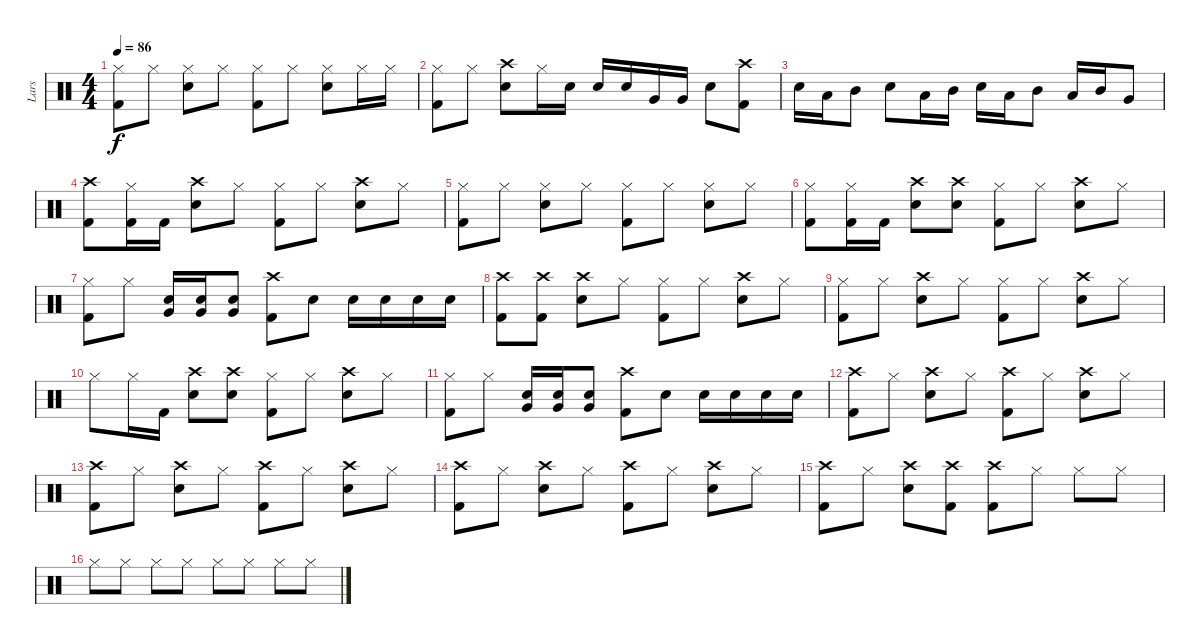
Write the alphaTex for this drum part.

\track ("Lars" "Lars") {instrument percussion}
\staff {score}
\articulation defaults
\ts (4 4)
\tempo 86
\clef neutral
\ks c
("Hi-Hat (closed)" "Kick (hit) 2").8{dy f} "Hi-Hat (closed)".8 ("Hi-Hat (closed)" "Electric Snare (hit)").8 "Hi-Hat (closed)".8 ("Hi-Hat (closed)" "Kick (hit) 2").8 "Hi-Hat (closed)".8 ("Hi-Hat (closed)" "Electric Snare (hit)").8 "Hi-Hat (closed)".16 "Hi-Hat (closed)".16 |
("Hi-Hat (closed)" "Kick (hit) 2").8 "Hi-Hat (closed)".8 ("Crash high (hit)" "Electric Snare (hit)").8 "Hi-Hat (closed)".16 "Electric Snare (hit)".16 "Electric Snare (hit)".16 "Electric Snare (hit)".16 "Very Low Tom (hit)".16 "Very Low Tom (hit)".16 "Electric Snare (hit)".8 ("Crash high (hit)" "Kick (hit) 2").8 |
"Electric Snare (hit)".16 "Low Tom (hit)".16 "Mid Tom (hit)".8 "Electric Snare (hit)".8 "Low Tom (hit)".16 "Mid Tom (hit)".16 "Electric Snare (hit)".16 "Low Tom (hit)".16 "Mid Tom (hit)".8 "Low Tom (hit)".16 "Mid Tom (hit)".16 "Very Low Tom (hit)".8 |
("Crash high (hit)" "Kick (hit) 2").8 ("Hi-Hat (closed)" "Kick (hit) 2").16 "Kick (hit) 2".16 ("Crash high (hit)" "Electric Snare (hit)").8 "Hi-Hat (closed)".8 ("Hi-Hat (closed)" "Kick (hit) 2").8 "Hi-Hat (closed)".8 ("Crash high (hit)" "Electric Snare (hit)").8 "Hi-Hat (closed)".8 |
("Hi-Hat (closed)" "Kick (hit) 2").8 "Hi-Hat (closed)".8 ("Hi-Hat (closed)" "Electric Snare (hit)").8 "Hi-Hat (closed)".8 ("Hi-Hat (closed)" "Kick (hit) 2").8 "Hi-Hat (closed)".8 ("Hi-Hat (closed)" "Electric Snare (hit)").8 "Hi-Hat (closed)".8 |
("Hi-Hat (closed)" "Kick (hit) 2").8 ("Hi-Hat (closed)" "Kick (hit) 2").16 "Kick (hit) 2".16 ("Crash high (hit)" "Electric Snare (hit)").8 ("Crash high (hit)" "Electric Snare (hit)").8 ("Hi-Hat (closed)" "Kick (hit) 2").8 "Hi-Hat (closed)".8 ("Crash high (hit)" "Electric Snare (hit)").8 "Hi-Hat (closed)".8 |
("Hi-Hat (closed)" "Kick (hit) 2").8 "Hi-Hat (closed)".8 ("Very Low Tom (hit)" "Electric Snare (hit)").16 ("Very Low Tom (hit)" "Electric Snare (hit)").16 ("Very Low Tom (hit)" "Electric Snare (hit)").8 ("Crash high (hit)" "Kick (hit) 2").8 "Electric Snare (hit)".8 "Electric Snare (hit)".16 "Electric Snare (hit)".16 "Electric Snare (hit)".16 "Electric Snare (hit)".16 |
("Crash high (hit)" "Kick (hit) 2").8 ("Crash high (hit)" "Kick (hit) 2").8 ("Crash high (hit)" "Electric Snare (hit)").8 "Hi-Hat (closed)".8 ("Hi-Hat (closed)" "Kick (hit) 2").8 "Hi-Hat (closed)".8 ("Crash high (hit)" "Electric Snare (hit)").8 "Hi-Hat (closed)".8 |
("Hi-Hat (closed)" "Kick (hit) 2").8 "Hi-Hat (closed)".8 ("Crash high (hit)" "Electric Snare (hit)").8 "Hi-Hat (closed)".8 ("Hi-Hat (closed)" "Kick (hit) 2").8 "Hi-Hat (closed)".8 ("Crash high (hit)" "Electric Snare (hit)").8 "Hi-Hat (closed)".8 |
"Hi-Hat (closed)".8 "Hi-Hat (closed)".16 "Kick (hit) 2".16 ("Crash high (hit)" "Electric Snare (hit)").8 ("Crash high (hit)" "Electric Snare (hit)").8 ("Hi-Hat (closed)" "Kick (hit) 2").8 "Hi-Hat (closed)".8 ("Crash high (hit)" "Electric Snare (hit)").8 "Hi-Hat (closed)".8 |
("Hi-Hat (closed)" "Kick (hit) 2").8 "Hi-Hat (closed)".8 ("Very Low Tom (hit)" "Electric Snare (hit)").16 ("Very Low Tom (hit)" "Electric Snare (hit)").16 ("Very Low Tom (hit)" "Electric Snare (hit)").8 ("Crash high (hit)" "Kick (hit) 2").8 "Electric Snare (hit)".8 "Electric Snare (hit)".16 "Electric Snare (hit)".16 "Electric Snare (hit)".16 "Electric Snare (hit)".16 |
("Crash high (hit)" "Kick (hit) 2").8 "Hi-Hat (closed)".8 ("Crash high (hit)" "Electric Snare (hit)").8 "Hi-Hat (closed)".8 ("Crash high (hit)" "Kick (hit) 2").8 "Hi-Hat (closed)".8 ("Crash high (hit)" "Electric Snare (hit)").8 "Hi-Hat (closed)".8 |
("Crash high (hit)" "Kick (hit) 2").8 "Hi-Hat (closed)".8 ("Crash high (hit)" "Electric Snare (hit)").8 "Hi-Hat (closed)".8 ("Crash high (hit)" "Kick (hit) 2").8 "Hi-Hat (closed)".8 ("Crash high (hit)" "Electric Snare (hit)").8 "Hi-Hat (closed)".8 |
("Crash high (hit)" "Kick (hit) 2").8 "Hi-Hat (closed)".8 ("Crash high (hit)" "Electric Snare (hit)").8 "Hi-Hat (closed)".8 ("Crash high (hit)" "Kick (hit) 2").8 "Hi-Hat (closed)".8 ("Crash high (hit)" "Electric Snare (hit)").8 "Hi-Hat (closed)".8 |
("Crash high (hit)" "Kick (hit) 2").8 "Hi-Hat (closed)".8 ("Crash high (hit)" "Electric Snare (hit)").8 ("Crash high (hit)" "Kick (hit) 2").8 ("Crash high (hit)" "Kick (hit) 2").8 "Hi-Hat (closed)".8 "Hi-Hat (closed)".8 "Hi-Hat (closed)".8 |
"Hi-Hat (closed)".8 "Hi-Hat (closed)".8 "Hi-Hat (closed)".8 "Hi-Hat (closed)".8 "Hi-Hat (closed)".8 "Hi-Hat (closed)".8 "Hi-Hat (closed)".8 "Hi-Hat (closed)".8
